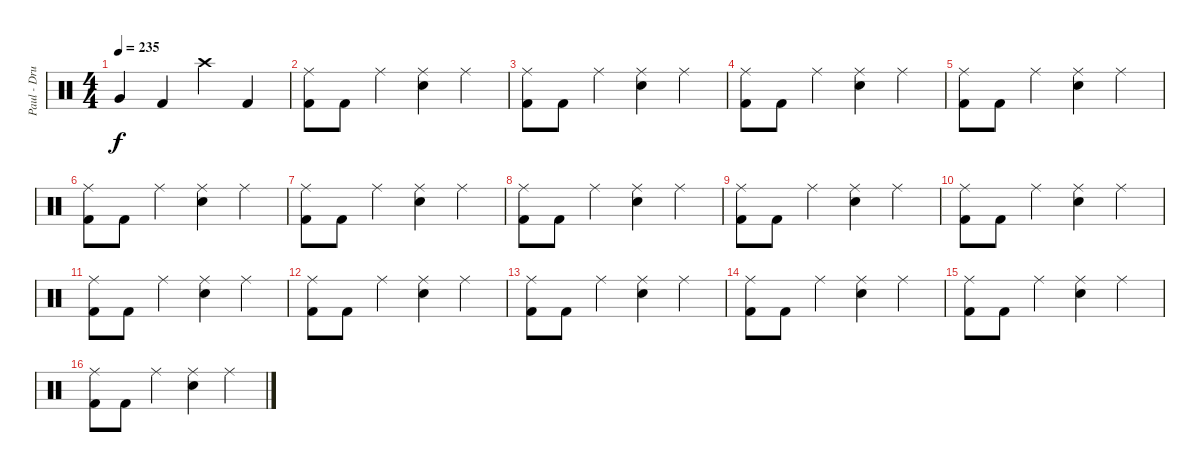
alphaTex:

\track ("Paul - Drums" "Paul - Dru") {instrument percussion}
\staff {score}
\articulation defaults
\ts (4 4)
\tempo 235
\clef neutral
\ks c "Very Low Tom (hit)".4{dy f} "Kick (hit) 2".4 "Crash high (hit)".4 "Kick (hit) 2".4
|
("Ride (middle)" "Kick (hit) 2").8 "Kick (hit) 2".8 "Ride (middle)".4 ("Ride (middle)" "Electric Snare (hit)").4 "Ride (middle)".4 |
("Ride (middle)" "Kick (hit) 2").8 "Kick (hit) 2".8 "Ride (middle)".4 ("Ride (middle)" "Electric Snare (hit)").4 "Ride (middle)".4 |
("Ride (middle)" "Kick (hit) 2").8 "Kick (hit) 2".8 "Ride (middle)".4 ("Ride (middle)" "Electric Snare (hit)").4 "Ride (middle)".4 |
("Ride (middle)" "Kick (hit) 2").8 "Kick (hit) 2".8 "Ride (middle)".4 ("Ride (middle)" "Electric Snare (hit)").4 "Ride (middle)".4 |
("Ride (middle)" "Kick (hit) 2").8 "Kick (hit) 2".8 "Ride (middle)".4 ("Ride (middle)" "Electric Snare (hit)").4 "Ride (middle)".4 |
("Ride (middle)" "Kick (hit) 2").8 "Kick (hit) 2".8 "Ride (middle)".4 ("Ride (middle)" "Electric Snare (hit)").4 "Ride (middle)".4 |
("Ride (middle)" "Kick (hit) 2").8 "Kick (hit) 2".8 "Ride (middle)".4 ("Ride (middle)" "Electric Snare (hit)").4 "Ride (middle)".4 |
("Ride (middle)" "Kick (hit) 2").8 "Kick (hit) 2".8 "Ride (middle)".4 ("Ride (middle)" "Electric Snare (hit)").4 "Ride (middle)".4 |
("Ride (middle)" "Kick (hit) 2").8 "Kick (hit) 2".8 "Ride (middle)".4 ("Ride (middle)" "Electric Snare (hit)").4 "Ride (middle)".4 |
("Ride (middle)" "Kick (hit) 2").8 "Kick (hit) 2".8 "Ride (middle)".4 ("Ride (middle)" "Electric Snare (hit)").4 "Ride (middle)".4 |
("Ride (middle)" "Kick (hit) 2").8 "Kick (hit) 2".8 "Ride (middle)".4 ("Ride (middle)" "Electric Snare (hit)").4 "Ride (middle)".4 |
("Ride (middle)" "Kick (hit) 2").8 "Kick (hit) 2".8 "Ride (middle)".4 ("Ride (middle)" "Electric Snare (hit)").4 "Ride (middle)".4 |
("Ride (middle)" "Kick (hit) 2").8 "Kick (hit) 2".8 "Ride (middle)".4 ("Ride (middle)" "Electric Snare (hit)").4 "Ride (middle)".4 |
("Ride (middle)" "Kick (hit) 2").8 "Kick (hit) 2".8 "Ride (middle)".4 ("Ride (middle)" "Electric Snare (hit)").4 "Ride (middle)".4 |
("Ride (middle)" "Kick (hit) 2").8 "Kick (hit) 2".8 "Ride (middle)".4 ("Ride (middle)" "Electric Snare (hit)").4 "Ride (middle)".4
